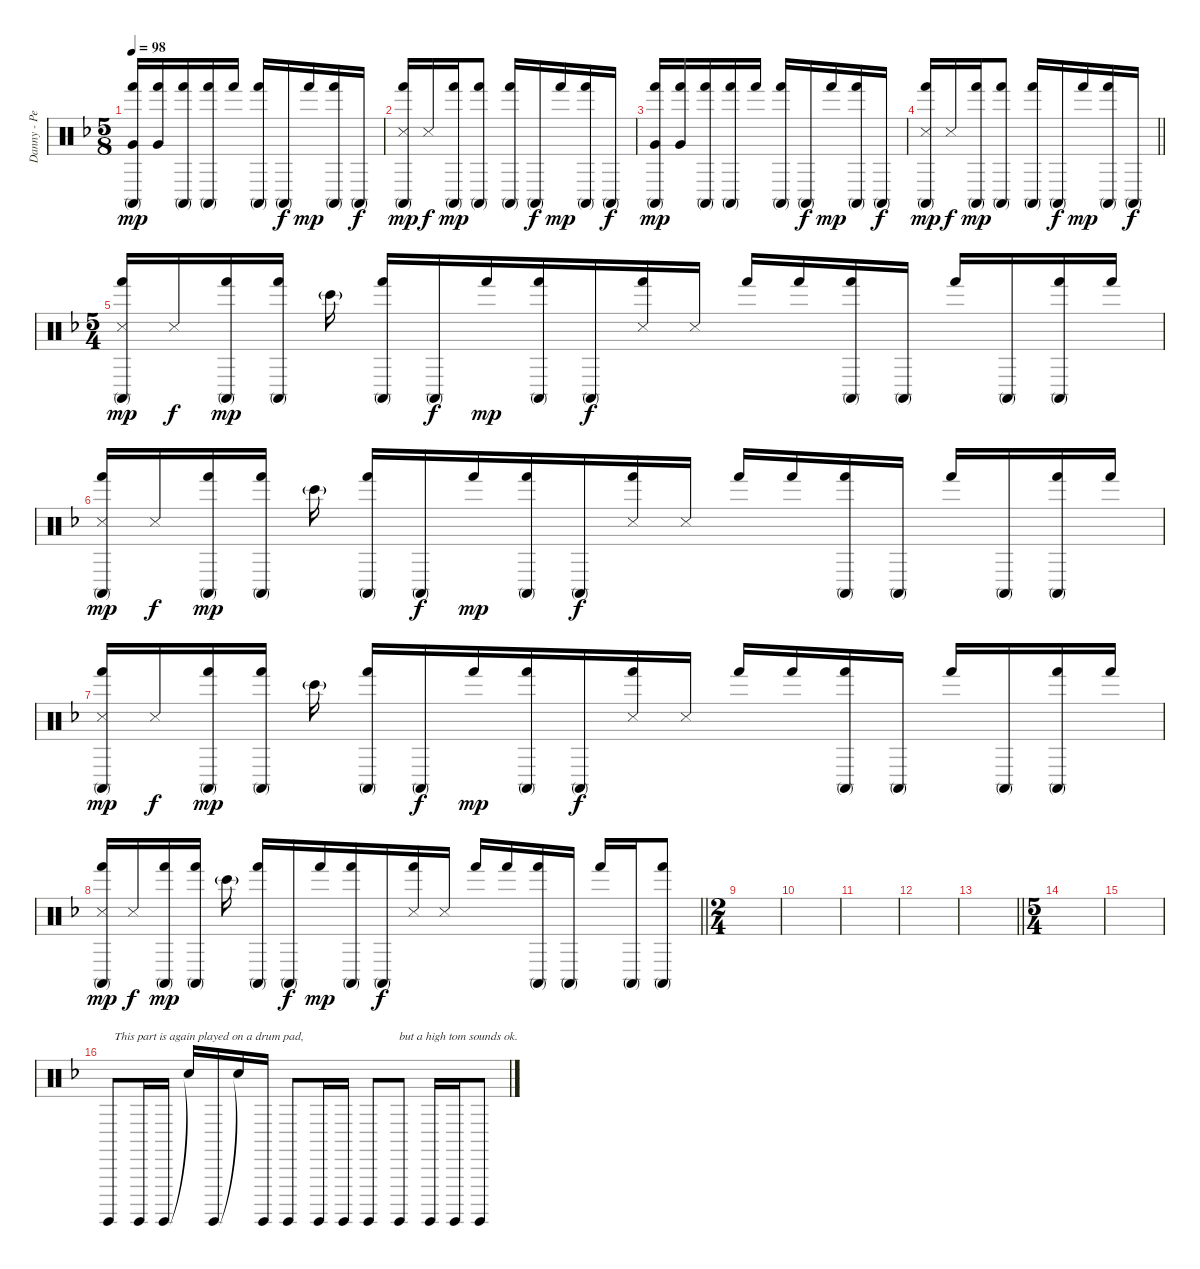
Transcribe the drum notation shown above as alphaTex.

\track ("Danny - Percusion" "Danny - Pe") {instrument percussion}
\staff {score}
\articulation defaults
\ts (5 8)
\tempo 98
\clef neutral
\ks dminor
("Hand (hit)" "Conga high (mute)" "Very Low Tom (hit)").16{dy mp beam Up} ("Hand (hit)" "Very Low Tom (hit)").16{beam merge} ("Hand (hit)" "Conga high (mute)").16 ("Hand (hit)" "Conga high (mute)").16{beam merge} "Hand (hit)".16{beam split} ("Hand (hit)" "Conga high (mute)").16{beam Up beam merge} "Conga high (mute)".16{dy f beam Up} "Hand (hit)".16{dy mp beam merge} ("Hand (hit)" "Conga high (mute)").16{beam Up} "Conga high (mute)".16{dy f beam Up} |
("Hand (hit)" "Conga high (mute)" "Snare (side stick) 3").16{dy mp beam Up} "Snare (side stick) 3".16{dy f beam merge} ("Hand (hit)" "Conga high (mute)").16{dy mp} ("Hand (hit)" "Conga high (mute)").8{beam split} ("Hand (hit)" "Conga high (mute)").16{beam Up beam merge} "Conga high (mute)".16{dy f beam Up} "Hand (hit)".16{dy mp beam merge} ("Hand (hit)" "Conga high (mute)").16{beam Up} "Conga high (mute)".16{dy f beam Up} |
("Hand (hit)" "Conga high (mute)" "Very Low Tom (hit)").16{dy mp beam Up} ("Hand (hit)" "Very Low Tom (hit)").16{beam merge} ("Hand (hit)" "Conga high (mute)").16 ("Hand (hit)" "Conga high (mute)").16{beam merge} "Hand (hit)".16{beam split} ("Hand (hit)" "Conga high (mute)").16{beam Up beam merge} "Conga high (mute)".16{dy f beam Up} "Hand (hit)".16{dy mp beam merge} ("Hand (hit)" "Conga high (mute)").16{beam Up} "Conga high (mute)".16{dy f beam Up} |
\barLineRight lightlight
("Hand (hit)" "Conga high (mute)" "Snare (side stick) 3").16{dy mp beam Up} "Snare (side stick) 3".16{dy f beam merge} ("Hand (hit)" "Conga high (mute)").16{dy mp} ("Hand (hit)" "Conga high (mute)").8{beam split} ("Hand (hit)" "Conga high (mute)").16{beam Up beam merge} "Conga high (mute)".16{dy f beam Up} "Hand (hit)".16{dy mp beam merge} ("Hand (hit)" "Conga high (mute)").16{beam Up} "Conga high (mute)".16{dy f beam Up} |
\ts (5 4)
("Hand (hit)" "Conga high (mute)" "Snare (side stick) 3").16{dy mp beam Up} "Snare (side stick) 3".16{dy f beam merge} ("Hand (hit)" "Conga high (mute)").16{dy mp} ("Hand (hit)" "Conga high (mute)").16 "Bongo High (hit)"{g}.16{beam split} ("Hand (hit)" "Conga high (mute)").16{beam Up beam merge} "Conga high (mute)".16{dy f beam Up} "Hand (hit)".16{dy mp beam merge} ("Hand (hit)" "Conga high (mute)").16{beam Up} "Conga high (mute)".16{dy f beam Up} ("Hand (hit)" "Snare (side stick) 3").16 "Snare (side stick) 3".16 "Hand (hit)".16 "Hand (hit)".16 ("Hand (hit)" "Conga high (mute)").16 "Conga high (mute)".16 "Hand (hit)".16 "Conga high (mute)".16 ("Hand (hit)" "Conga high (mute)").16 "Hand (hit)".16 |
("Hand (hit)" "Conga high (mute)" "Snare (side stick) 3").16{dy mp beam Up} "Snare (side stick) 3".16{dy f beam merge} ("Hand (hit)" "Conga high (mute)").16{dy mp} ("Hand (hit)" "Conga high (mute)").16 "Bongo High (hit)"{g}.16{beam split} ("Hand (hit)" "Conga high (mute)").16{beam Up beam merge} "Conga high (mute)".16{dy f beam Up} "Hand (hit)".16{dy mp beam merge} ("Hand (hit)" "Conga high (mute)").16{beam Up} "Conga high (mute)".16{dy f beam Up} ("Hand (hit)" "Snare (side stick) 3").16 "Snare (side stick) 3".16 "Hand (hit)".16 "Hand (hit)".16 ("Hand (hit)" "Conga high (mute)").16 "Conga high (mute)".16 "Hand (hit)".16 "Conga high (mute)".16 ("Hand (hit)" "Conga high (mute)").16 "Hand (hit)".16 |
("Hand (hit)" "Conga high (mute)" "Snare (side stick) 3").16{dy mp beam Up} "Snare (side stick) 3".16{dy f beam merge} ("Hand (hit)" "Conga high (mute)").16{dy mp} ("Hand (hit)" "Conga high (mute)").16 "Bongo High (hit)"{g}.16{beam split} ("Hand (hit)" "Conga high (mute)").16{beam Up beam merge} "Conga high (mute)".16{dy f beam Up} "Hand (hit)".16{dy mp beam merge} ("Hand (hit)" "Conga high (mute)").16{beam Up} "Conga high (mute)".16{dy f beam Up} ("Hand (hit)" "Snare (side stick) 3").16 "Snare (side stick) 3".16 "Hand (hit)".16 "Hand (hit)".16 ("Hand (hit)" "Conga high (mute)").16 "Conga high (mute)".16 "Hand (hit)".16 "Conga high (mute)".16 ("Hand (hit)" "Conga high (mute)").16 "Hand (hit)".16 |
\barLineRight lightlight
("Hand (hit)" "Conga high (mute)" "Snare (side stick) 3").16{dy mp beam Up} "Snare (side stick) 3".16{dy f beam merge} ("Hand (hit)" "Conga high (mute)").16{dy mp} ("Hand (hit)" "Conga high (mute)").16 "Bongo High (hit)"{g}.16{beam split} ("Hand (hit)" "Conga high (mute)").16{beam Up beam merge} "Conga high (mute)".16{dy f beam Up} "Hand (hit)".16{dy mp beam merge} ("Hand (hit)" "Conga high (mute)").16{beam Up} "Conga high (mute)".16{dy f beam Up} ("Hand (hit)" "Snare (side stick) 3").16 "Snare (side stick) 3".16 "Hand (hit)".16 "Hand (hit)".16 ("Hand (hit)" "Conga high (mute)").16 "Conga high (mute)".16 "Hand (hit)".16 "Conga high (mute)".16 ("Hand (hit)" "Conga high (mute)").8 |
\ts (2 4)
|
|
|
|
\barLineRight lightlight
|
\ts (5 4)
|
|
"Surdo (hit)".8{txt "  This part is again played on a drum pad,"} "Surdo (hit)".16 "Surdo (hit)".16 "Snare (hit)"{t}.16 "Surdo (hit)".16 "Snare (hit)"{t}.16 "Surdo (hit)".16 "Surdo (hit)".8 "Surdo (hit)".16 "Surdo (hit)".16 "Surdo (hit)".8 "Surdo (hit)".8{txt "but a high tom sounds ok."} "Surdo (hit)".16 "Surdo (hit)".16 "Surdo (hit)".8
